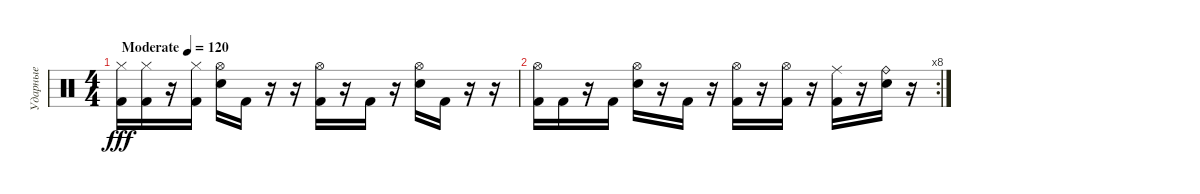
\track ("Ударные" "Ударные") {instrument percussion}
\staff {score}
\articulation defaults
\ts (4 4)
\tempo (120 "Moderate")
\clef neutral
\ks c
("Hi-Hat (closed)" "Kick (hit) 2").16{dy fff} ("Hi-Hat (closed)" "Kick (hit) 2").16 r.16 ("Hi-Hat (closed)" "Kick (hit) 2").16 ("Hi-Hat (open)" "Electric Snare (hit)").16 "Kick (hit) 2".16 r.16 r.16 ("Hi-Hat (open)" "Kick (hit) 2").16 r.16 "Kick (hit) 2".16 r.16 ("Hi-Hat (open)" "Electric Snare (hit)").16 "Kick (hit) 2".16 r.16 r.16 |
\rc 8
("Hi-Hat (open)" "Kick (hit) 2").16 "Kick (hit) 2".16 r.16 "Kick (hit) 2".16 ("Hi-Hat (open)" "Electric Snare (hit)").16 r.16 "Kick (hit) 2".16 r.16 ("Hi-Hat (open)" "Kick (hit) 2").16 r.16 ("Hi-Hat (open)" "Kick (hit) 2").16 r.16 ("Ride (middle)" "Kick (hit) 2").16 r.16 ("Ride (bell)" "Electric Snare (hit)").16 r.16
